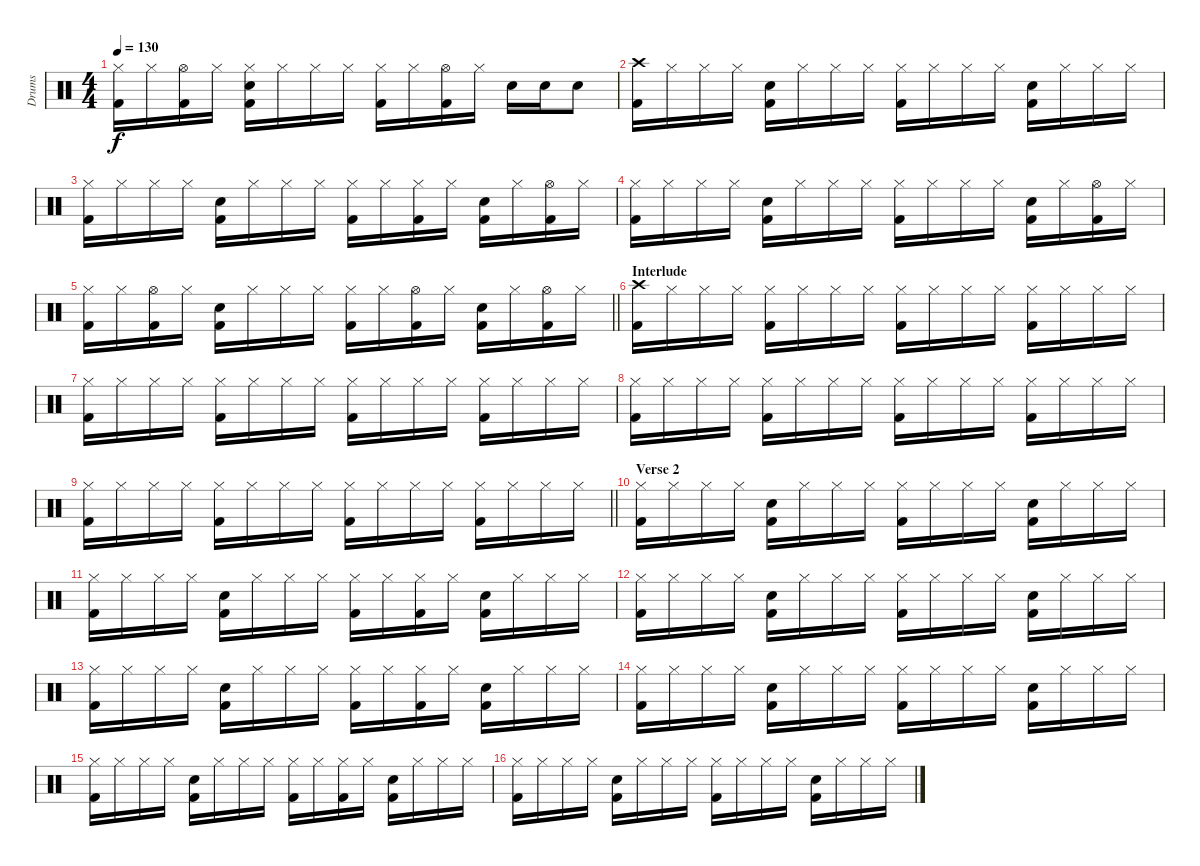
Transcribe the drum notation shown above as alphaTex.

\track ("Drums" "Drums") {instrument percussion}
\staff {score}
\articulation defaults
\ts (4 4)
\tempo 130
\clef neutral
\ks c
("Hi-Hat (closed)" "Kick (hit) 2").16{dy f} "Hi-Hat (closed)".16 ("Hi-Hat (open)" "Kick (hit) 2").16 "Hi-Hat (closed)".16 ("Hi-Hat (closed)" "Electric Snare (hit)" "Kick (hit) 2").16 "Hi-Hat (closed)".16 "Hi-Hat (closed)".16 "Hi-Hat (closed)".16 ("Hi-Hat (closed)" "Kick (hit) 2").16 "Hi-Hat (closed)".16 ("Hi-Hat (open)" "Kick (hit) 2").16 "Hi-Hat (closed)".16 "Electric Snare (hit)".16 "Electric Snare (hit)".16 "Electric Snare (hit)".8 |
("Crash high (hit)" "Kick (hit) 2").16 "Hi-Hat (closed)".16 "Hi-Hat (closed)".16 "Hi-Hat (closed)".16 ("Electric Snare (hit)" "Kick (hit) 2").16 "Hi-Hat (closed)".16 "Hi-Hat (closed)".16 "Hi-Hat (closed)".16 ("Hi-Hat (closed)" "Kick (hit) 2").16 "Hi-Hat (closed)".16 "Hi-Hat (closed)".16 "Hi-Hat (closed)".16 ("Electric Snare (hit)" "Kick (hit) 2").16 "Hi-Hat (closed)".16 "Hi-Hat (closed)".16 "Hi-Hat (closed)".16 |
("Hi-Hat (closed)" "Kick (hit) 2").16 "Hi-Hat (closed)".16 "Hi-Hat (closed)".16 "Hi-Hat (closed)".16 ("Electric Snare (hit)" "Kick (hit) 2").16 "Hi-Hat (closed)".16 "Hi-Hat (closed)".16 "Hi-Hat (closed)".16 ("Hi-Hat (closed)" "Kick (hit) 2").16 "Hi-Hat (closed)".16 ("Hi-Hat (closed)" "Kick (hit) 2").16 "Hi-Hat (closed)".16 ("Electric Snare (hit)" "Kick (hit) 2").16 "Hi-Hat (closed)".16 ("Hi-Hat (open)" "Kick (hit) 2").16 "Hi-Hat (closed)".16 |
("Hi-Hat (closed)" "Kick (hit) 2").16 "Hi-Hat (closed)".16 "Hi-Hat (closed)".16 "Hi-Hat (closed)".16 ("Electric Snare (hit)" "Kick (hit) 2").16 "Hi-Hat (closed)".16 "Hi-Hat (closed)".16 "Hi-Hat (closed)".16 ("Hi-Hat (closed)" "Kick (hit) 2").16 "Hi-Hat (closed)".16 "Hi-Hat (closed)".16 "Hi-Hat (closed)".16 ("Electric Snare (hit)" "Kick (hit) 2").16 "Hi-Hat (closed)".16 ("Hi-Hat (open)" "Kick (hit) 2").16 "Hi-Hat (closed)".16 |
\barLineRight lightlight
("Hi-Hat (closed)" "Kick (hit) 2").16 "Hi-Hat (closed)".16 ("Hi-Hat (open)" "Kick (hit) 2").16 "Hi-Hat (closed)".16 ("Electric Snare (hit)" "Kick (hit) 2").16 "Hi-Hat (closed)".16 "Hi-Hat (closed)".16 "Hi-Hat (closed)".16 ("Hi-Hat (closed)" "Kick (hit) 2").16 "Hi-Hat (closed)".16 ("Hi-Hat (open)" "Kick (hit) 2").16 "Hi-Hat (closed)".16 ("Electric Snare (hit)" "Kick (hit) 2").16 "Hi-Hat (closed)".16 ("Hi-Hat (open)" "Kick (hit) 2").16 "Hi-Hat (closed)".16 |
\section ("" "Interlude")
("Crash high (hit)" "Kick (hit) 2").16 "Hi-Hat (closed)".16 "Hi-Hat (closed)".16 "Hi-Hat (closed)".16 ("Hi-Hat (closed)" "Kick (hit) 2").16 "Hi-Hat (closed)".16 "Hi-Hat (closed)".16 "Hi-Hat (closed)".16 ("Hi-Hat (closed)" "Kick (hit) 2").16 "Hi-Hat (closed)".16 "Hi-Hat (closed)".16 "Hi-Hat (closed)".16 ("Hi-Hat (closed)" "Kick (hit) 2").16 "Hi-Hat (closed)".16 "Hi-Hat (closed)".16 "Hi-Hat (closed)".16 |
("Hi-Hat (closed)" "Kick (hit) 2").16 "Hi-Hat (closed)".16 "Hi-Hat (closed)".16 "Hi-Hat (closed)".16 ("Hi-Hat (closed)" "Kick (hit) 2").16 "Hi-Hat (closed)".16 "Hi-Hat (closed)".16 "Hi-Hat (closed)".16 ("Hi-Hat (closed)" "Kick (hit) 2").16 "Hi-Hat (closed)".16 "Hi-Hat (closed)".16 "Hi-Hat (closed)".16 ("Hi-Hat (closed)" "Kick (hit) 2").16 "Hi-Hat (closed)".16 "Hi-Hat (closed)".16 "Hi-Hat (closed)".16 |
("Hi-Hat (closed)" "Kick (hit) 2").16 "Hi-Hat (closed)".16 "Hi-Hat (closed)".16 "Hi-Hat (closed)".16 ("Hi-Hat (closed)" "Kick (hit) 2").16 "Hi-Hat (closed)".16 "Hi-Hat (closed)".16 "Hi-Hat (closed)".16 ("Hi-Hat (closed)" "Kick (hit) 2").16 "Hi-Hat (closed)".16 "Hi-Hat (closed)".16 "Hi-Hat (closed)".16 ("Hi-Hat (closed)" "Kick (hit) 2").16 "Hi-Hat (closed)".16 "Hi-Hat (closed)".16 "Hi-Hat (closed)".16 |
\barLineRight lightlight
("Hi-Hat (closed)" "Kick (hit) 2").16 "Hi-Hat (closed)".16 "Hi-Hat (closed)".16 "Hi-Hat (closed)".16 ("Hi-Hat (closed)" "Kick (hit) 2").16 "Hi-Hat (closed)".16 "Hi-Hat (closed)".16 "Hi-Hat (closed)".16 ("Hi-Hat (closed)" "Kick (hit) 2").16 "Hi-Hat (closed)".16 "Hi-Hat (closed)".16 "Hi-Hat (closed)".16 ("Hi-Hat (closed)" "Kick (hit) 2").16 "Hi-Hat (closed)".16 "Hi-Hat (closed)".16 "Hi-Hat (closed)".16 |
\section ("" "Verse 2")
("Hi-Hat (closed)" "Kick (hit) 2").16 "Hi-Hat (closed)".16 "Hi-Hat (closed)".16 "Hi-Hat (closed)".16 ("Electric Snare (hit)" "Kick (hit) 2").16 "Hi-Hat (closed)".16 "Hi-Hat (closed)".16 "Hi-Hat (closed)".16 ("Hi-Hat (closed)" "Kick (hit) 2").16 "Hi-Hat (closed)".16 "Hi-Hat (closed)".16 "Hi-Hat (closed)".16 ("Electric Snare (hit)" "Kick (hit) 2").16 "Hi-Hat (closed)".16 "Hi-Hat (closed)".16 "Hi-Hat (closed)".16 |
("Hi-Hat (closed)" "Kick (hit) 2").16 "Hi-Hat (closed)".16 "Hi-Hat (closed)".16 "Hi-Hat (closed)".16 ("Electric Snare (hit)" "Kick (hit) 2").16 "Hi-Hat (closed)".16 "Hi-Hat (closed)".16 "Hi-Hat (closed)".16 ("Hi-Hat (closed)" "Kick (hit) 2").16 "Hi-Hat (closed)".16 ("Hi-Hat (closed)" "Kick (hit) 2").16 "Hi-Hat (closed)".16 ("Electric Snare (hit)" "Kick (hit) 2").16 "Hi-Hat (closed)".16 "Hi-Hat (closed)".16 "Hi-Hat (closed)".16 |
("Hi-Hat (closed)" "Kick (hit) 2").16 "Hi-Hat (closed)".16 "Hi-Hat (closed)".16 "Hi-Hat (closed)".16 ("Electric Snare (hit)" "Kick (hit) 2").16 "Hi-Hat (closed)".16 "Hi-Hat (closed)".16 "Hi-Hat (closed)".16 ("Hi-Hat (closed)" "Kick (hit) 2").16 "Hi-Hat (closed)".16 "Hi-Hat (closed)".16 "Hi-Hat (closed)".16 ("Electric Snare (hit)" "Kick (hit) 2").16 "Hi-Hat (closed)".16 "Hi-Hat (closed)".16 "Hi-Hat (closed)".16 |
("Hi-Hat (closed)" "Kick (hit) 2").16 "Hi-Hat (closed)".16 "Hi-Hat (closed)".16 "Hi-Hat (closed)".16 ("Electric Snare (hit)" "Kick (hit) 2").16 "Hi-Hat (closed)".16 "Hi-Hat (closed)".16 "Hi-Hat (closed)".16 ("Hi-Hat (closed)" "Kick (hit) 2").16 "Hi-Hat (closed)".16 ("Hi-Hat (closed)" "Kick (hit) 2").16 "Hi-Hat (closed)".16 ("Electric Snare (hit)" "Kick (hit) 2").16 "Hi-Hat (closed)".16 "Hi-Hat (closed)".16 "Hi-Hat (closed)".16 |
("Hi-Hat (closed)" "Kick (hit) 2").16 "Hi-Hat (closed)".16 "Hi-Hat (closed)".16 "Hi-Hat (closed)".16 ("Electric Snare (hit)" "Kick (hit) 2").16 "Hi-Hat (closed)".16 "Hi-Hat (closed)".16 "Hi-Hat (closed)".16 ("Hi-Hat (closed)" "Kick (hit) 2").16 "Hi-Hat (closed)".16 "Hi-Hat (closed)".16 "Hi-Hat (closed)".16 ("Electric Snare (hit)" "Kick (hit) 2").16 "Hi-Hat (closed)".16 "Hi-Hat (closed)".16 "Hi-Hat (closed)".16 |
("Hi-Hat (closed)" "Kick (hit) 2").16 "Hi-Hat (closed)".16 "Hi-Hat (closed)".16 "Hi-Hat (closed)".16 ("Electric Snare (hit)" "Kick (hit) 2").16 "Hi-Hat (closed)".16 "Hi-Hat (closed)".16 "Hi-Hat (closed)".16 ("Hi-Hat (closed)" "Kick (hit) 2").16 "Hi-Hat (closed)".16 ("Hi-Hat (closed)" "Kick (hit) 2").16 "Hi-Hat (closed)".16 ("Electric Snare (hit)" "Kick (hit) 2").16 "Hi-Hat (closed)".16 "Hi-Hat (closed)".16 "Hi-Hat (closed)".16 |
("Hi-Hat (closed)" "Kick (hit) 2").16 "Hi-Hat (closed)".16 "Hi-Hat (closed)".16 "Hi-Hat (closed)".16 ("Electric Snare (hit)" "Kick (hit) 2").16 "Hi-Hat (closed)".16 "Hi-Hat (closed)".16 "Hi-Hat (closed)".16 ("Hi-Hat (closed)" "Kick (hit) 2").16 "Hi-Hat (closed)".16 "Hi-Hat (closed)".16 "Hi-Hat (closed)".16 ("Electric Snare (hit)" "Kick (hit) 2").16 "Hi-Hat (closed)".16 "Hi-Hat (closed)".16 "Hi-Hat (closed)".16
